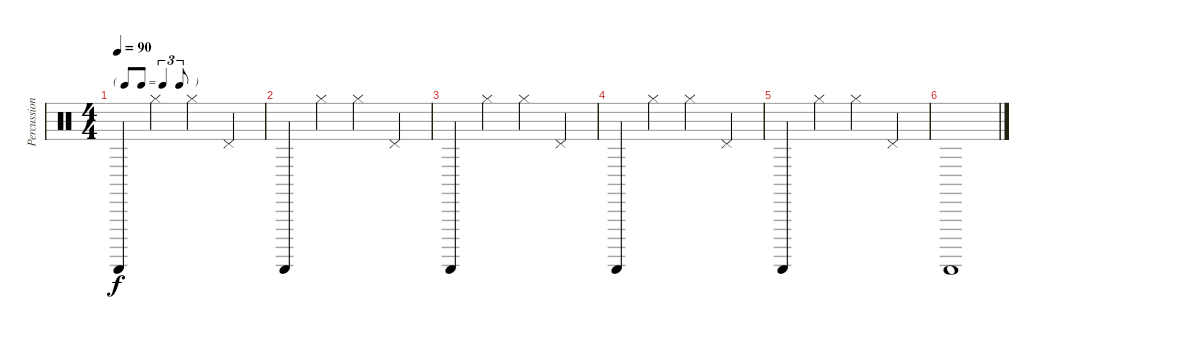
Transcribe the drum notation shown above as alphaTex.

\track ("Percussion" "Percussion") {instrument percussion}
\staff {score}
\articulation defaults
\ts (4 4)
\tf triplet8th
\tempo 90
\clef neutral
\ks c "Guiro (scrap-return)".4{dy f} "Hi-Hat (closed)".4 "Hi-Hat (closed)".4 "Pedal Hi-Hat (hit)".4
|
"Guiro (scrap-return)".4 "Hi-Hat (closed)".4 "Hi-Hat (closed)".4 "Pedal Hi-Hat (hit)".4 |
"Guiro (scrap-return)".4 "Hi-Hat (closed)".4 "Hi-Hat (closed)".4 "Pedal Hi-Hat (hit)".4 |
"Guiro (scrap-return)".4 "Hi-Hat (closed)".4 "Hi-Hat (closed)".4 "Pedal Hi-Hat (hit)".4 |
"Guiro (scrap-return)".4 "Hi-Hat (closed)".4 "Hi-Hat (closed)".4 "Pedal Hi-Hat (hit)".4 |
"Guiro (scrap-return)".1
